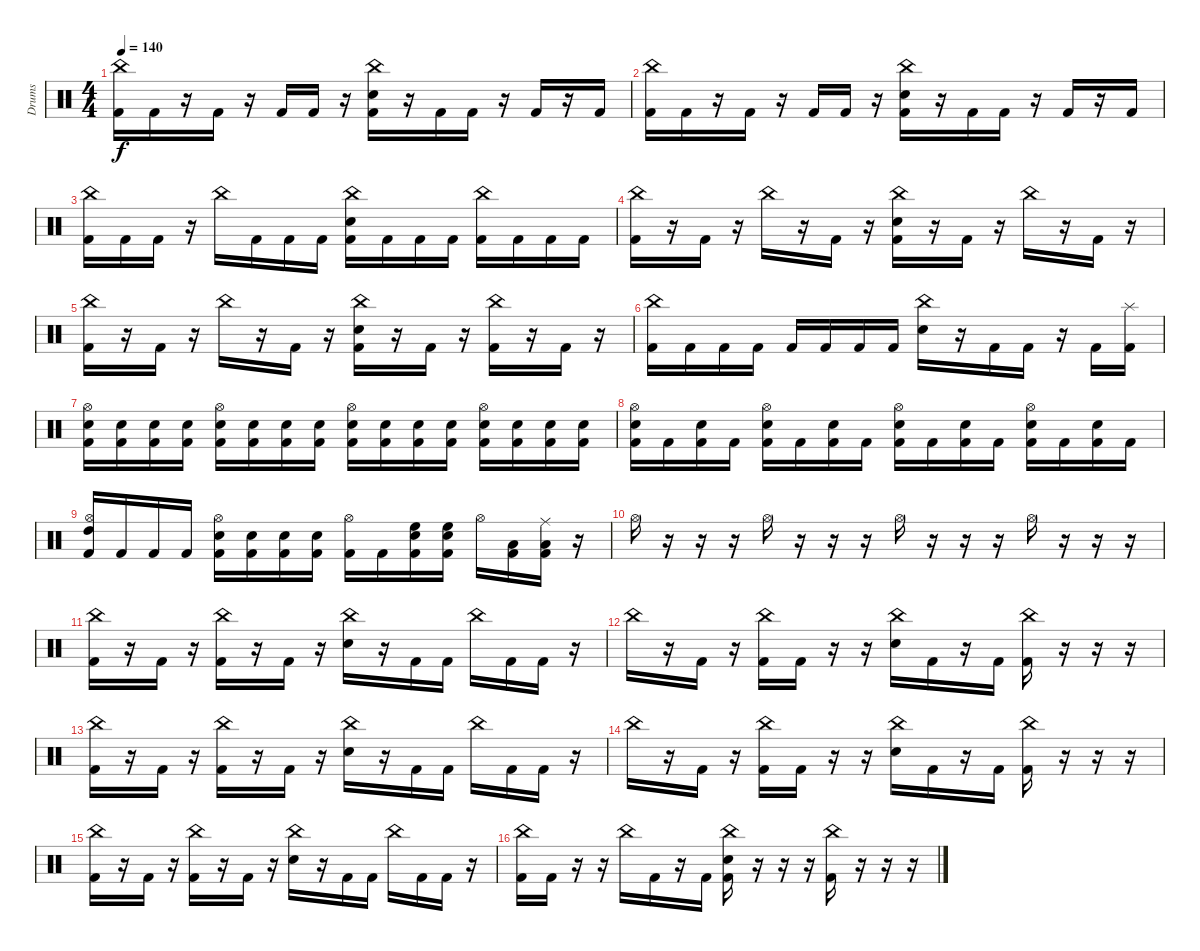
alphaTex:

\track ("Drums" "Drums") {instrument percussion}
\staff {score}
\articulation defaults
\ts (4 4)
\tempo 140
\clef neutral
\ks c
("China (hit)" "Kick (hit) 2").16{dy f} "Kick (hit) 2".16 r.16 "Kick (hit) 2".16 r.16 "Kick (hit) 2".16 "Kick (hit) 2".16 r.16 ("China (hit)" "Snare (hit) 2" "Kick (hit) 2").16 r.16 "Kick (hit) 2".16 "Kick (hit) 2".16 r.16 "Kick (hit) 2".16 r.16 "Kick (hit) 2".16 |
("China (hit)" "Kick (hit) 2").16 "Kick (hit) 2".16 r.16 "Kick (hit) 2".16 r.16 "Kick (hit) 2".16 "Kick (hit) 2".16 r.16 ("China (hit)" "Snare (hit) 2" "Kick (hit) 2").16 r.16 "Kick (hit) 2".16 "Kick (hit) 2".16 r.16 "Kick (hit) 2".16 r.16 "Kick (hit) 2".16 |
("China (hit)" "Kick (hit) 2").16 "Kick (hit) 2".16 "Kick (hit) 2".16 r.16 "China (hit)".16 "Kick (hit) 2".16 "Kick (hit) 2".16 "Kick (hit) 2".16 ("China (hit)" "Snare (hit) 2" "Kick (hit) 2").16 "Kick (hit) 2".16 "Kick (hit) 2".16 "Kick (hit) 2".16 ("China (hit)" "Kick (hit) 2").16 "Kick (hit) 2".16 "Kick (hit) 2".16 "Kick (hit) 2".16 |
("China (hit)" "Kick (hit) 2").16 r.16 "Kick (hit) 2".16 r.16 "China (hit)".16 r.16 "Kick (hit) 2".16 r.16 ("China (hit)" "Snare (hit) 2" "Kick (hit) 2").16 r.16 "Kick (hit) 2".16 r.16 "China (hit)".16 r.16 "Kick (hit) 2".16 r.16 |
("China (hit)" "Kick (hit) 2").16 r.16 "Kick (hit) 2".16 r.16 "China (hit)".16 r.16 "Kick (hit) 2".16 r.16 ("China (hit)" "Snare (hit) 2" "Kick (hit) 2").16 r.16 "Kick (hit) 2".16 r.16 ("China (hit)" "Kick (hit) 2").16 r.16 "Kick (hit) 2".16 r.16 |
("China (hit)" "Kick (hit) 2").16 "Kick (hit) 2".16 "Kick (hit) 2".16 "Kick (hit) 2".16 "Kick (hit) 2".16 "Kick (hit) 2".16 "Kick (hit) 2".16 "Kick (hit) 2".16 ("China (hit)" "Snare (hit) 2").16 r.16 "Kick (hit) 2".16 "Kick (hit) 2".16 r.16 "Kick (hit) 2".16 ("Splash (hit)" "Kick (hit) 2").16 |
("Hi-Hat (open)" "Snare (hit) 2" "Kick (hit) 2").16 ("Snare (hit) 2" "Kick (hit) 2").16 ("Snare (hit) 2" "Kick (hit) 2").16 ("Snare (hit) 2" "Kick (hit) 2").16 ("Hi-Hat (open)" "Snare (hit) 2" "Kick (hit) 2").16 ("Snare (hit) 2" "Kick (hit) 2").16 ("Snare (hit) 2" "Kick (hit) 2").16 ("Snare (hit) 2" "Kick (hit) 2").16 ("Hi-Hat (open)" "Snare (hit) 2" "Kick (hit) 2").16 ("Snare (hit) 2" "Kick (hit) 2").16 ("Snare (hit) 2" "Kick (hit) 2").16 ("Snare (hit) 2" "Kick (hit) 2").16 ("Hi-Hat (open)" "Snare (hit) 2" "Kick (hit) 2").16 ("Snare (hit) 2" "Kick (hit) 2").16 ("Snare (hit) 2" "Kick (hit) 2").16 ("Snare (hit) 2" "Kick (hit) 2").16 |
("Hi-Hat (open)" "Snare (hit) 2" "Kick (hit) 2").16 "Kick (hit) 2".16 ("Snare (hit) 2" "Kick (hit) 2").16 "Kick (hit) 2".16 ("Hi-Hat (open)" "Snare (hit) 2" "Kick (hit) 2").16 "Kick (hit) 2".16 ("Snare (hit) 2" "Kick (hit) 2").16 "Kick (hit) 2".16 ("Hi-Hat (open)" "Snare (hit) 2" "Kick (hit) 2").16 "Kick (hit) 2".16 ("Snare (hit) 2" "Kick (hit) 2").16 "Kick (hit) 2".16 ("Hi-Hat (open)" "Snare (hit) 2" "Kick (hit) 2").16 "Kick (hit) 2".16 ("Snare (hit) 2" "Kick (hit) 2").16 "Kick (hit) 2".16 |
("Hi-Hat (open)" "High Tom (hit)" "Kick (hit) 2").16 "Kick (hit) 2".16 "Kick (hit) 2".16 "Kick (hit) 2".16 ("Hi-Hat (open)" "Snare (hit) 2" "Kick (hit) 2").16 ("Snare (hit) 2" "Kick (hit) 2").16 ("Snare (hit) 2" "Kick (hit) 2").16 ("Snare (hit) 2" "Kick (hit) 2").16 ("Hi-Hat (open)" "Kick (hit) 2").16 "Kick (hit) 2".16 ("Snare (hit) 2" "High Floor Tom (hit)" "Kick (hit) 2").16 ("Snare (hit) 2" "High Floor Tom (hit)" "Kick (hit) 2").16 "Hi-Hat (open)".16 ("Low Tom (hit)" "Kick (hit) 2").16 ("Ride (middle)" "Low Tom (hit)" "Kick (hit) 2").16 r.16 |
"Hi-Hat (open)".16 r.16 r.16 r.16 "Hi-Hat (open)".16 r.16 r.16 r.16 "Hi-Hat (open)".16 r.16 r.16 r.16 "Hi-Hat (open)".16 r.16 r.16 r.16 |
("China (hit)" "Kick (hit) 2").16 r.16 "Kick (hit) 2".16 r.16 ("China (hit)" "Kick (hit) 2").16 r.16 "Kick (hit) 2".16 r.16 ("China (hit)" "Snare (hit) 2").16 r.16 "Kick (hit) 2".16 "Kick (hit) 2".16 "China (hit)".16 "Kick (hit) 2".16 "Kick (hit) 2".16 r.16 |
"China (hit)".16 r.16 "Kick (hit) 2".16 r.16 ("China (hit)" "Kick (hit) 2").16 "Kick (hit) 2".16 r.16 r.16 ("China (hit)" "Snare (hit) 2").16 "Kick (hit) 2".16 r.16 "Kick (hit) 2".16 ("China (hit)" "Kick (hit) 2").16 r.16 r.16 r.16 |
("China (hit)" "Kick (hit) 2").16 r.16 "Kick (hit) 2".16 r.16 ("China (hit)" "Kick (hit) 2").16 r.16 "Kick (hit) 2".16 r.16 ("China (hit)" "Snare (hit) 2").16 r.16 "Kick (hit) 2".16 "Kick (hit) 2".16 "China (hit)".16 "Kick (hit) 2".16 "Kick (hit) 2".16 r.16 |
"China (hit)".16 r.16 "Kick (hit) 2".16 r.16 ("China (hit)" "Kick (hit) 2").16 "Kick (hit) 2".16 r.16 r.16 ("China (hit)" "Snare (hit) 2").16 "Kick (hit) 2".16 r.16 "Kick (hit) 2".16 ("China (hit)" "Kick (hit) 2").16 r.16 r.16 r.16 |
("China (hit)" "Kick (hit) 2").16 r.16 "Kick (hit) 2".16 r.16 ("China (hit)" "Kick (hit) 2").16 r.16 "Kick (hit) 2".16 r.16 ("China (hit)" "Snare (hit) 2").16 r.16 "Kick (hit) 2".16 "Kick (hit) 2".16 "China (hit)".16 "Kick (hit) 2".16 "Kick (hit) 2".16 r.16 |
("China (hit)" "Kick (hit) 2").16 "Kick (hit) 2".16 r.16 r.16 "China (hit)".16 "Kick (hit) 2".16 r.16 "Kick (hit) 2".16 ("China (hit)" "Snare (hit) 2" "Kick (hit) 2").16 r.16 r.16 r.16 ("China (hit)" "Kick (hit) 2").16 r.16 r.16 r.16
